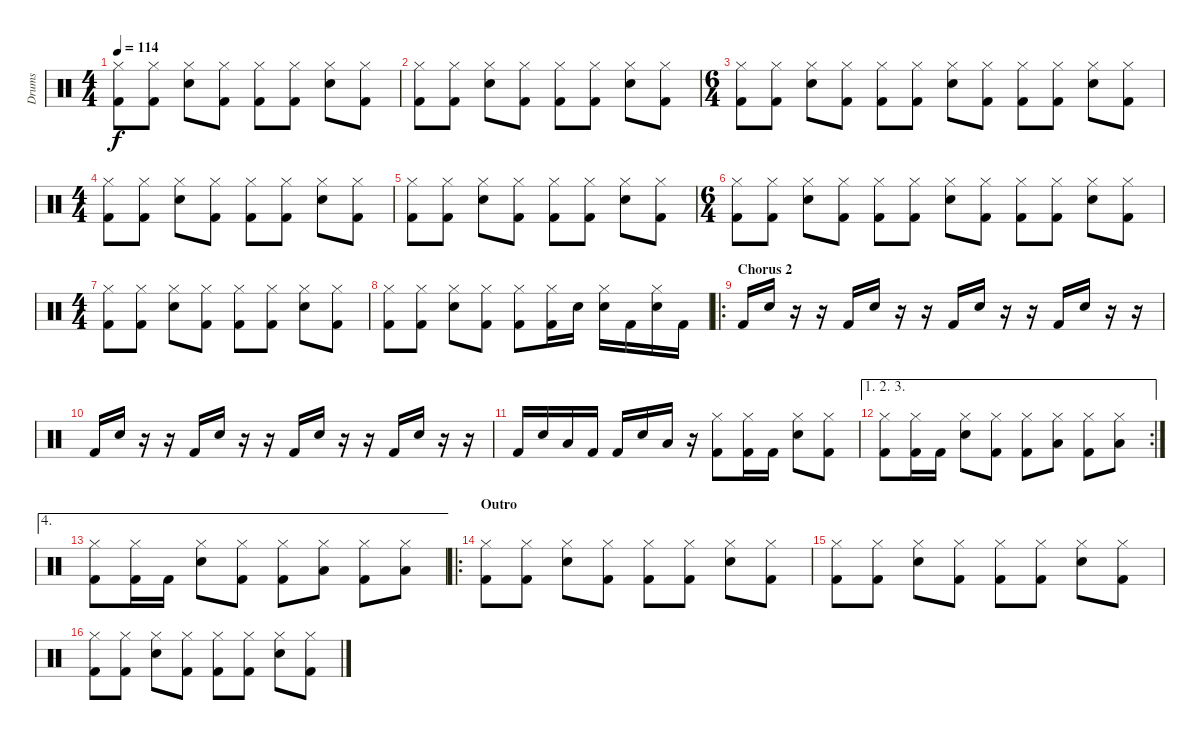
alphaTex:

\track ("Drums" "Drums") {instrument percussion}
\staff {score}
\articulation defaults
\ts (4 4)
\tempo 114
\clef neutral
\ks c
("Hi-Hat (closed)" "Kick (hit) 2").8{dy f} ("Hi-Hat (closed)" "Kick (hit) 2").8 ("Hi-Hat (closed)" "Snare (hit) 2").8 ("Hi-Hat (closed)" "Kick (hit) 2").8 ("Hi-Hat (closed)" "Kick (hit) 2").8 ("Hi-Hat (closed)" "Kick (hit) 2").8 ("Hi-Hat (closed)" "Snare (hit) 2").8 ("Hi-Hat (closed)" "Kick (hit) 2").8 |
("Hi-Hat (closed)" "Kick (hit) 2").8 ("Hi-Hat (closed)" "Kick (hit) 2").8 ("Hi-Hat (closed)" "Snare (hit) 2").8 ("Hi-Hat (closed)" "Kick (hit) 2").8 ("Hi-Hat (closed)" "Kick (hit) 2").8 ("Hi-Hat (closed)" "Kick (hit) 2").8 ("Hi-Hat (closed)" "Snare (hit) 2").8 ("Hi-Hat (closed)" "Kick (hit) 2").8 |
\ts (6 4)
("Hi-Hat (closed)" "Kick (hit) 2").8 ("Hi-Hat (closed)" "Kick (hit) 2").8 ("Hi-Hat (closed)" "Snare (hit) 2").8 ("Hi-Hat (closed)" "Kick (hit) 2").8 ("Hi-Hat (closed)" "Kick (hit) 2").8 ("Hi-Hat (closed)" "Kick (hit) 2").8 ("Hi-Hat (closed)" "Snare (hit) 2").8 ("Hi-Hat (closed)" "Kick (hit) 2").8 ("Hi-Hat (closed)" "Kick (hit) 2").8 ("Hi-Hat (closed)" "Kick (hit) 2").8 ("Hi-Hat (closed)" "Snare (hit) 2").8 ("Hi-Hat (closed)" "Kick (hit) 2").8 |
\ts (4 4)
("Hi-Hat (closed)" "Kick (hit) 2").8 ("Hi-Hat (closed)" "Kick (hit) 2").8 ("Hi-Hat (closed)" "Snare (hit) 2").8 ("Hi-Hat (closed)" "Kick (hit) 2").8 ("Hi-Hat (closed)" "Kick (hit) 2").8 ("Hi-Hat (closed)" "Kick (hit) 2").8 ("Hi-Hat (closed)" "Snare (hit) 2").8 ("Hi-Hat (closed)" "Kick (hit) 2").8 |
("Hi-Hat (closed)" "Kick (hit) 2").8 ("Hi-Hat (closed)" "Kick (hit) 2").8 ("Hi-Hat (closed)" "Snare (hit) 2").8 ("Hi-Hat (closed)" "Kick (hit) 2").8 ("Hi-Hat (closed)" "Kick (hit) 2").8 ("Hi-Hat (closed)" "Kick (hit) 2").8 ("Hi-Hat (closed)" "Snare (hit) 2").8 ("Hi-Hat (closed)" "Kick (hit) 2").8 |
\ts (6 4)
("Hi-Hat (closed)" "Kick (hit) 2").8 ("Hi-Hat (closed)" "Kick (hit) 2").8 ("Hi-Hat (closed)" "Snare (hit) 2").8 ("Hi-Hat (closed)" "Kick (hit) 2").8 ("Hi-Hat (closed)" "Kick (hit) 2").8 ("Hi-Hat (closed)" "Kick (hit) 2").8 ("Hi-Hat (closed)" "Snare (hit) 2").8 ("Hi-Hat (closed)" "Kick (hit) 2").8 ("Hi-Hat (closed)" "Kick (hit) 2").8 ("Hi-Hat (closed)" "Kick (hit) 2").8 ("Hi-Hat (closed)" "Snare (hit) 2").8 ("Hi-Hat (closed)" "Kick (hit) 2").8 |
\ts (4 4)
("Hi-Hat (closed)" "Kick (hit) 2").8 ("Hi-Hat (closed)" "Kick (hit) 2").8 ("Hi-Hat (closed)" "Snare (hit) 2").8 ("Hi-Hat (closed)" "Kick (hit) 2").8 ("Hi-Hat (closed)" "Kick (hit) 2").8 ("Hi-Hat (closed)" "Kick (hit) 2").8 ("Hi-Hat (closed)" "Snare (hit) 2").8 ("Hi-Hat (closed)" "Kick (hit) 2").8 |
("Hi-Hat (closed)" "Kick (hit) 2").8 ("Hi-Hat (closed)" "Kick (hit) 2").8 ("Hi-Hat (closed)" "Snare (hit) 2").8 ("Hi-Hat (closed)" "Kick (hit) 2").8 ("Hi-Hat (closed)" "Kick (hit) 2").8 ("Hi-Hat (closed)" "Kick (hit) 2").16 "Snare (hit) 2".16 ("Hi-Hat (closed)" "Snare (hit) 2").16 "Kick (hit) 2".16 ("Hi-Hat (closed)" "Snare (hit) 2").16 "Kick (hit) 2".16 |
\ro
\section ("" "Chorus 2")
"Kick (hit) 2".16 "Snare (hit) 2".16 r.16 r.16 "Kick (hit) 2".16 "Snare (hit) 2".16 r.16 r.16 "Kick (hit) 2".16 "Snare (hit) 2".16 r.16 r.16 "Kick (hit) 2".16 "Snare (hit) 2".16 r.16 r.16 |
"Kick (hit) 2".16 "Snare (hit) 2".16 r.16 r.16 "Kick (hit) 2".16 "Snare (hit) 2".16 r.16 r.16 "Kick (hit) 2".16 "Snare (hit) 2".16 r.16 r.16 "Kick (hit) 2".16 "Snare (hit) 2".16 r.16 r.16 |
"Kick (hit) 2".16 "Snare (hit) 2".16 "Low Tom (hit)".16 "Kick (hit) 2".16 "Kick (hit) 2".16 "Snare (hit) 2".16 "Low Floor Tom (hit)".16 r.16 ("Hi-Hat (closed)" "Kick (hit) 2").8 ("Hi-Hat (closed)" "Kick (hit) 2").16 "Kick (hit) 2".16 ("Hi-Hat (closed)" "Snare (hit) 2").8 ("Hi-Hat (closed)" "Kick (hit) 2").8 |
\ae (1 2 3)
\rc 2
("Hi-Hat (closed)" "Kick (hit) 2").8 ("Hi-Hat (closed)" "Kick (hit) 2").16 "Kick (hit) 2".16 ("Hi-Hat (closed)" "Snare (hit) 2").8 ("Hi-Hat (closed)" "Kick (hit) 2").8 ("Hi-Hat (closed)" "Kick (hit) 2").8 ("Hi-Hat (closed)" "Low Tom (hit)").8 ("Hi-Hat (closed)" "Kick (hit) 2").8 ("Hi-Hat (closed)" "Low Floor Tom (hit)").8 |
\ae 4
("Hi-Hat (closed)" "Kick (hit) 2").8 ("Hi-Hat (closed)" "Kick (hit) 2").16 "Kick (hit) 2".16 ("Hi-Hat (closed)" "Snare (hit) 2").8 ("Hi-Hat (closed)" "Kick (hit) 2").8 ("Hi-Hat (closed)" "Kick (hit) 2").8 ("Hi-Hat (closed)" "Low Tom (hit)").8 ("Hi-Hat (closed)" "Kick (hit) 2").8 ("Hi-Hat (closed)" "Low Floor Tom (hit)").8 |
\ro
\section ("" "Outro")
("Hi-Hat (closed)" "Kick (hit) 2").8 ("Hi-Hat (closed)" "Kick (hit) 2").8 ("Hi-Hat (closed)" "Snare (hit) 2").8 ("Hi-Hat (closed)" "Kick (hit) 2").8 ("Hi-Hat (closed)" "Kick (hit) 2").8 ("Hi-Hat (closed)" "Kick (hit) 2").8 ("Hi-Hat (closed)" "Snare (hit) 2").8 ("Hi-Hat (closed)" "Kick (hit) 2").8 |
("Hi-Hat (closed)" "Kick (hit) 2").8 ("Hi-Hat (closed)" "Kick (hit) 2").8 ("Hi-Hat (closed)" "Snare (hit) 2").8 ("Hi-Hat (closed)" "Kick (hit) 2").8 ("Hi-Hat (closed)" "Kick (hit) 2").8 ("Hi-Hat (closed)" "Kick (hit) 2").8 ("Hi-Hat (closed)" "Snare (hit) 2").8 ("Hi-Hat (closed)" "Kick (hit) 2").8 |
("Hi-Hat (closed)" "Kick (hit) 2").8 ("Hi-Hat (closed)" "Kick (hit) 2").8 ("Hi-Hat (closed)" "Snare (hit) 2").8 ("Hi-Hat (closed)" "Kick (hit) 2").8 ("Hi-Hat (closed)" "Kick (hit) 2").8 ("Hi-Hat (closed)" "Kick (hit) 2").8 ("Hi-Hat (closed)" "Snare (hit) 2").8 ("Hi-Hat (closed)" "Kick (hit) 2").8
